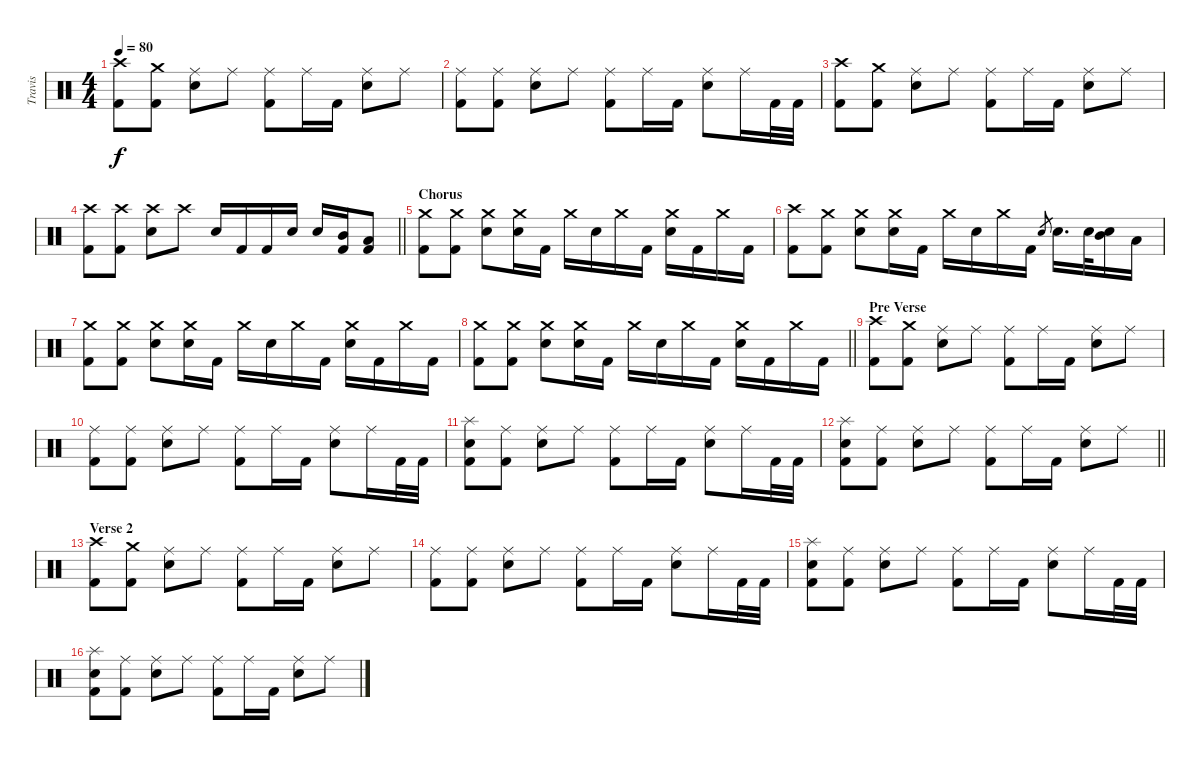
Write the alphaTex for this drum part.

\track ("Travis" "Travis") {instrument percussion}
\staff {score}
\articulation defaults
\ts (4 4)
\tempo 80
\clef neutral
\ks c
("Crash high (hit)" "Kick (hit) 2").8{dy f} ("Crash medium (hit)" "Kick (hit) 2").8 ("Ride (middle)" "Snare (hit) 2").8 "Ride (middle)".8 ("Ride (middle)" "Kick (hit) 2").8 "Ride (middle)".16 "Kick (hit) 2".16 ("Ride (middle)" "Electric Snare (hit)").8 "Ride (middle)".8 |
("Ride (middle)" "Kick (hit) 2").8 ("Ride (middle)" "Kick (hit) 2").8 ("Ride (middle)" "Snare (hit) 2").8 "Ride (middle)".8 ("Ride (middle)" "Kick (hit) 2").8 "Ride (middle)".16 "Kick (hit) 2".16 ("Ride (middle)" "Electric Snare (hit)").8 "Ride (middle)".16 "Kick (hit) 2".32 "Kick (hit) 2".32 |
("Crash high (hit)" "Kick (hit) 2").8 ("Crash medium (hit)" "Kick (hit) 2").8 ("Ride (middle)" "Snare (hit) 2").8 "Ride (middle)".8 ("Ride (middle)" "Kick (hit) 2").8 "Ride (middle)".16 "Kick (hit) 2".16 ("Ride (middle)" "Electric Snare (hit)").8 "Ride (middle)".8 |
\barLineRight lightlight
("Crash high (hit)" "Kick (hit) 2").8 ("Crash high (hit)" "Kick (hit) 2").8 ("Crash high (hit)" "Snare (hit) 2").8 "Crash high (hit)".8 "Electric Snare (hit)".16 "Kick (hit) 2".16 "Kick (hit) 2".16 "Electric Snare (hit)".16 "Electric Snare (hit)".16 ("Mid Tom (hit)" "Kick (hit) 2").16 ("Low Tom (hit)" "Kick (hit) 2").8 |
\section ("" "Chorus")
("Crash medium (hit)" "Kick (hit) 2").8{volume 16} ("Crash medium (hit)" "Kick (hit) 2").8 ("Crash medium (hit)" "Electric Snare (hit)").8 ("Crash medium (hit)" "Electric Snare (hit)").16 "Kick (hit) 2".16 "Crash medium (hit)".16 "Electric Snare (hit)".16 "Crash medium (hit)".16 "Kick (hit) 2".16 ("Crash medium (hit)" "Electric Snare (hit)").16 "Kick (hit) 2".16 "Crash medium (hit)".16 "Kick (hit) 2".16 |
("Crash high (hit)" "Kick (hit) 2").8 ("Crash medium (hit)" "Kick (hit) 2").8 ("Crash medium (hit)" "Electric Snare (hit)").8 ("Crash medium (hit)" "Electric Snare (hit)").16 "Kick (hit) 2".16 "Crash medium (hit)".16 "Electric Snare (hit)".16 "Crash medium (hit)".16 "Kick (hit) 2".16 "Electric Snare (hit)".8{gr} "Electric Snare (hit)".16{d} "Electric Snare (hit)".32 ("Electric Snare (hit)" "Mid Tom (hit)").16 "Low Tom (hit)".16 |
("Crash medium (hit)" "Kick (hit) 2").8 ("Crash medium (hit)" "Kick (hit) 2").8 ("Crash medium (hit)" "Electric Snare (hit)").8 ("Crash medium (hit)" "Electric Snare (hit)").16 "Kick (hit) 2".16 "Crash medium (hit)".16 "Electric Snare (hit)".16 "Crash medium (hit)".16 "Kick (hit) 2".16 ("Crash medium (hit)" "Electric Snare (hit)").16 "Kick (hit) 2".16 "Crash medium (hit)".16 "Kick (hit) 2".16 |
\barLineRight lightlight
("Crash medium (hit)" "Kick (hit) 2").8 ("Crash medium (hit)" "Kick (hit) 2").8 ("Crash medium (hit)" "Electric Snare (hit)").8 ("Crash medium (hit)" "Electric Snare (hit)").16 "Kick (hit) 2".16 "Crash medium (hit)".16 "Electric Snare (hit)".16 "Crash medium (hit)".16 "Kick (hit) 2".16 ("Crash medium (hit)" "Electric Snare (hit)").16 "Kick (hit) 2".16 "Crash medium (hit)".16 "Kick (hit) 2".16 |
\section ("" "Pre Verse")
("Crash high (hit)" "Kick (hit) 2").8{volume 13} ("Crash medium (hit)" "Kick (hit) 2").8 ("Ride (middle)" "Snare (hit) 2").8 "Ride (middle)".8 ("Ride (middle)" "Kick (hit) 2").8 "Ride (middle)".16 "Kick (hit) 2".16 ("Ride (middle)" "Electric Snare (hit)").8 "Ride (middle)".8 |
("Ride (middle)" "Kick (hit) 2").8 ("Ride (middle)" "Kick (hit) 2").8 ("Ride (middle)" "Snare (hit) 2").8 "Ride (middle)".8 ("Ride (middle)" "Kick (hit) 2").8 "Ride (middle)".16 "Kick (hit) 2".16 ("Ride (middle)" "Electric Snare (hit)").8 "Ride (middle)".16 "Kick (hit) 2".32 "Kick (hit) 2".32 |
("Splash (hit)" "Electric Snare (hit)" "Kick (hit) 2").8 ("Ride (middle)" "Kick (hit) 2").8 ("Ride (middle)" "Snare (hit) 2").8 "Ride (middle)".8 ("Ride (middle)" "Kick (hit) 2").8 "Ride (middle)".16 "Kick (hit) 2".16 ("Ride (middle)" "Electric Snare (hit)").8 "Ride (middle)".16 "Kick (hit) 2".32 "Kick (hit) 2".32 |
\barLineRight lightlight
("Splash (hit)" "Electric Snare (hit)" "Kick (hit) 2").8 ("Ride (middle)" "Kick (hit) 2").8 ("Ride (middle)" "Snare (hit) 2").8 "Ride (middle)".8 ("Ride (middle)" "Kick (hit) 2").8 "Ride (middle)".16 "Kick (hit) 2".16 ("Ride (middle)" "Electric Snare (hit)").8 "Ride (middle)".8 |
\section ("" "Verse 2")
("Crash high (hit)" "Kick (hit) 2").8 ("Crash medium (hit)" "Kick (hit) 2").8 ("Ride (middle)" "Snare (hit) 2").8 "Ride (middle)".8 ("Ride (middle)" "Kick (hit) 2").8 "Ride (middle)".16 "Kick (hit) 2".16 ("Ride (middle)" "Electric Snare (hit)").8 "Ride (middle)".8 |
("Ride (middle)" "Kick (hit) 2").8 ("Ride (middle)" "Kick (hit) 2").8 ("Ride (middle)" "Snare (hit) 2").8 "Ride (middle)".8 ("Ride (middle)" "Kick (hit) 2").8 "Ride (middle)".16 "Kick (hit) 2".16 ("Ride (middle)" "Electric Snare (hit)").8 "Ride (middle)".16 "Kick (hit) 2".32 "Kick (hit) 2".32 |
("Splash (hit)" "Electric Snare (hit)" "Kick (hit) 2").8 ("Ride (middle)" "Kick (hit) 2").8 ("Ride (middle)" "Snare (hit) 2").8 "Ride (middle)".8 ("Ride (middle)" "Kick (hit) 2").8 "Ride (middle)".16 "Kick (hit) 2".16 ("Ride (middle)" "Electric Snare (hit)").8 "Ride (middle)".16 "Kick (hit) 2".32 "Kick (hit) 2".32 |
("Splash (hit)" "Electric Snare (hit)" "Kick (hit) 2").8 ("Ride (middle)" "Kick (hit) 2").8 ("Ride (middle)" "Snare (hit) 2").8 "Ride (middle)".8 ("Ride (middle)" "Kick (hit) 2").8 "Ride (middle)".16 "Kick (hit) 2".16 ("Ride (middle)" "Electric Snare (hit)").8 "Ride (middle)".8
